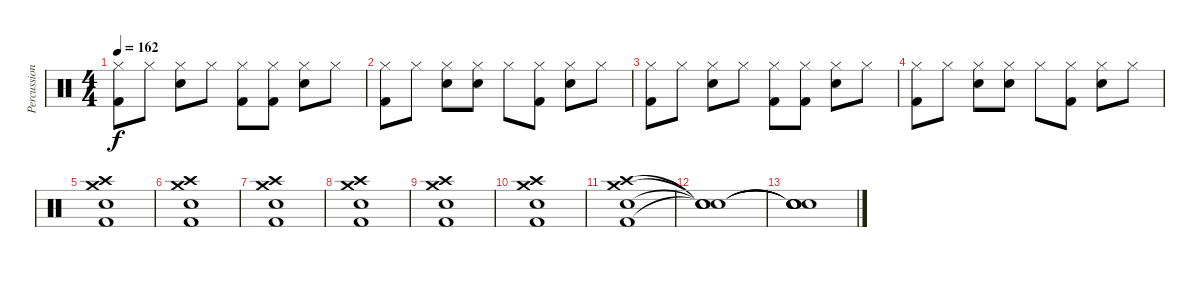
\track ("Percussion" "Percussion") {instrument percussion}
\staff {score}
\articulation defaults
\ts (4 4)
\tempo 162
\clef neutral
\ks c
("Hi-Hat (closed)" "Kick (hit) 2").8{dy f} "Hi-Hat (closed)".8 ("Hi-Hat (closed)" "Electric Snare (hit)").8 "Hi-Hat (closed)".8 ("Hi-Hat (closed)" "Kick (hit) 2").8 ("Hi-Hat (closed)" "Kick (hit) 2").8 ("Hi-Hat (closed)" "Electric Snare (hit)").8 "Hi-Hat (closed)".8 |
("Hi-Hat (closed)" "Kick (hit) 2").8 "Hi-Hat (closed)".8 ("Hi-Hat (closed)" "Electric Snare (hit)").8 ("Hi-Hat (closed)" "Electric Snare (hit)").8 "Hi-Hat (closed)".8 ("Hi-Hat (closed)" "Kick (hit) 2").8 ("Hi-Hat (closed)" "Electric Snare (hit)").8 "Hi-Hat (closed)".8 |
("Hi-Hat (closed)" "Kick (hit) 2").8 "Hi-Hat (closed)".8 ("Hi-Hat (closed)" "Electric Snare (hit)").8 "Hi-Hat (closed)".8 ("Hi-Hat (closed)" "Kick (hit) 2").8 ("Hi-Hat (closed)" "Kick (hit) 2").8 ("Hi-Hat (closed)" "Electric Snare (hit)").8 "Hi-Hat (closed)".8 |
("Hi-Hat (closed)" "Kick (hit) 2").8 "Hi-Hat (closed)".8 ("Hi-Hat (closed)" "Electric Snare (hit)").8 ("Hi-Hat (closed)" "Electric Snare (hit)").8 "Hi-Hat (closed)".8 ("Hi-Hat (closed)" "Kick (hit) 2").8 ("Hi-Hat (closed)" "Electric Snare (hit)").8 "Hi-Hat (closed)".8 |
("Crash high (hit)" "Crash medium (hit)" "Electric Snare (hit)" "Kick (hit) 2").1 |
("Crash high (hit)" "Crash medium (hit)" "Electric Snare (hit)" "Kick (hit) 2").1 |
("Crash high (hit)" "Crash medium (hit)" "Electric Snare (hit)" "Kick (hit) 2").1 |
("Crash high (hit)" "Crash medium (hit)" "Electric Snare (hit)" "Kick (hit) 2").1 |
("Crash high (hit)" "Crash medium (hit)" "Electric Snare (hit)" "Kick (hit) 2").1 |
("Crash high (hit)" "Crash medium (hit)" "Electric Snare (hit)" "Kick (hit) 2").1 |
("Crash high (hit)" "Crash medium (hit)" "Electric Snare (hit)" "Kick (hit) 2").1 |
("Snare (hit)"{t} "Snare (hit)"{t} "Snare (hit)"{t} "Snare (hit)"{t}).1 |
("Snare (hit)"{t} "Snare (hit)"{t} "Snare (hit)"{t} "Snare (hit)"{t} "Snare (hit)").1
